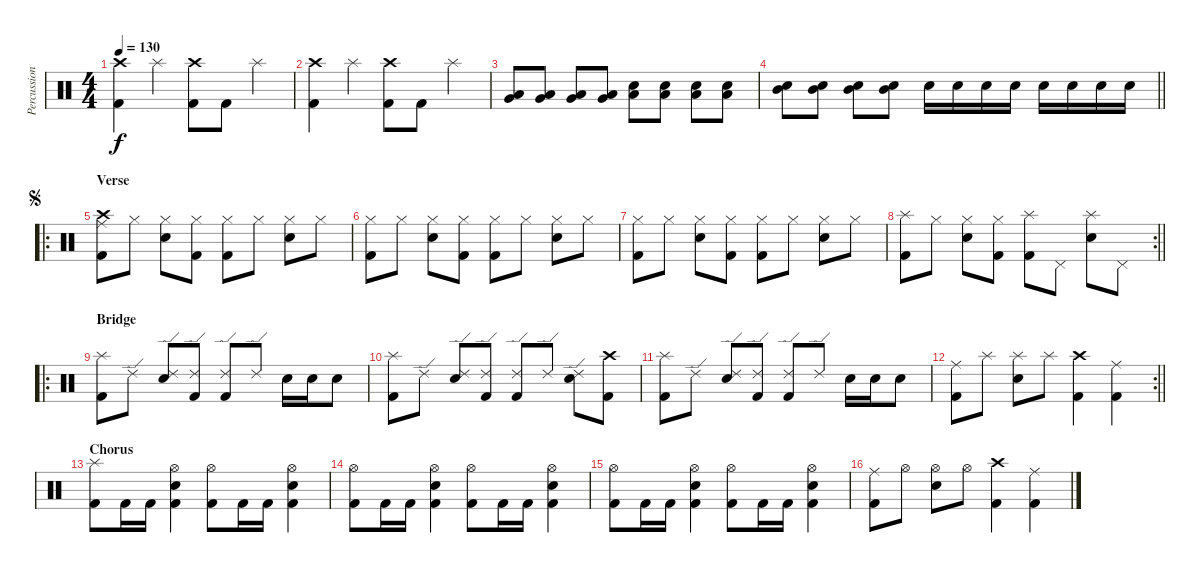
\track ("Percussion" "Percussion") {instrument percussion}
\staff {score}
\articulation defaults
\ts (4 4)
\tempo 130
\clef neutral
\ks c
("Crash high (hit)" "Kick (hit) 2").4{dy f} "Splash (hit)".4 ("Crash high (hit)" "Kick (hit) 2").8 "Kick (hit) 2".8 "Splash (hit)".4 |
("Crash high (hit)" "Kick (hit) 2").4 "Splash (hit)".4 ("Crash high (hit)" "Kick (hit) 2").8 "Kick (hit) 2".8 "Splash (hit)".4 |
("Low Floor Tom (hit)" "Very Low Tom (hit)").8 ("Low Floor Tom (hit)" "Very Low Tom (hit)").8 ("Low Floor Tom (hit)" "Very Low Tom (hit)").8 ("Low Floor Tom (hit)" "Very Low Tom (hit)").8 ("Low Tom (hit)" "Electric Snare (hit)").8 ("Low Tom (hit)" "Electric Snare (hit)").8 ("Low Tom (hit)" "Electric Snare (hit)").8 ("Low Tom (hit)" "Electric Snare (hit)").8 |
\barLineRight lightlight
("Mid Tom (hit)" "Electric Snare (hit)").8 ("Mid Tom (hit)" "Electric Snare (hit)").8 ("Mid Tom (hit)" "Electric Snare (hit)").8 ("Mid Tom (hit)" "Electric Snare (hit)").8 "Electric Snare (hit)".16 "Electric Snare (hit)".16 "Electric Snare (hit)".16 "Electric Snare (hit)".16 "Electric Snare (hit)".16 "Electric Snare (hit)".16 "Electric Snare (hit)".16 "Electric Snare (hit)".16 |
\ro
\section ("" "Verse")
\jump segno
("Crash high (hit)" "Ride (middle)" "Kick (hit) 2").8 "Hi-Hat (closed)".8 ("Hi-Hat (closed)" "Electric Snare (hit)").8 ("Hi-Hat (closed)" "Kick (hit) 2").8 ("Hi-Hat (closed)" "Kick (hit) 2").8 "Hi-Hat (closed)".8 ("Hi-Hat (closed)" "Electric Snare (hit)").8 "Hi-Hat (closed)".8 |
("Hi-Hat (closed)" "Kick (hit) 2").8 "Hi-Hat (closed)".8 ("Hi-Hat (closed)" "Electric Snare (hit)").8 ("Hi-Hat (closed)" "Kick (hit) 2").8 ("Hi-Hat (closed)" "Kick (hit) 2").8 "Hi-Hat (closed)".8 ("Hi-Hat (closed)" "Electric Snare (hit)").8 "Hi-Hat (closed)".8 |
("Hi-Hat (closed)" "Kick (hit) 2").8 "Hi-Hat (closed)".8 ("Hi-Hat (closed)" "Electric Snare (hit)").8 ("Hi-Hat (closed)" "Kick (hit) 2").8 ("Hi-Hat (closed)" "Kick (hit) 2").8 "Hi-Hat (closed)".8 ("Hi-Hat (closed)" "Electric Snare (hit)").8 "Hi-Hat (closed)".8 |
\rc 2
\barLineRight lightlight
("Splash (hit)" "Kick (hit) 2").8 "Hi-Hat (closed)".8 ("Hi-Hat (closed)" "Electric Snare (hit)").8 ("Hi-Hat (closed)" "Kick (hit) 2").8 ("Splash (hit)" "Kick (hit) 2").8 "Pedal Hi-Hat (hit)".8 ("Splash (hit)" "Electric Snare (hit)").8 "Pedal Hi-Hat (hit)".8 |
\ro
\section ("" "Bridge")
("Splash (hit)" "Kick (hit) 2").8 "Ride (edge) 2".8 ("Ride (edge) 2" "Electric Snare (hit)").8 ("Ride (edge) 2" "Kick (hit) 2").8 ("Ride (edge) 2" "Kick (hit) 2").8 "Ride (edge) 2".8 "Electric Snare (hit)".16 "Electric Snare (hit)".16 "Electric Snare (hit)".8 |
("Splash (hit)" "Kick (hit) 2").8 "Ride (edge) 2".8 ("Ride (edge) 2" "Electric Snare (hit)").8 ("Ride (edge) 2" "Kick (hit) 2").8 ("Ride (edge) 2" "Kick (hit) 2").8 "Ride (edge) 2".8 ("Ride (edge) 2" "Electric Snare (hit)").8 ("Crash high (hit)" "Kick (hit) 2").8 |
("Splash (hit)" "Kick (hit) 2").8 "Ride (edge) 2".8 ("Ride (edge) 2" "Electric Snare (hit)").8 ("Ride (edge) 2" "Kick (hit) 2").8 ("Ride (edge) 2" "Kick (hit) 2").8 "Ride (edge) 2".8 "Electric Snare (hit)".16 "Electric Snare (hit)".16 "Electric Snare (hit)".8 |
\rc 2
\barLineRight lightlight
("Ride (middle)" "Kick (hit) 2").8 "Splash (hit)".8 ("Splash (hit)" "Electric Snare (hit)").8 "Splash (hit)".8 ("Crash high (hit)" "Kick (hit) 2").4 ("Ride (middle)" "Kick (hit) 2").4 |
\section ("" "Chorus")
("Splash (hit)" "Kick (hit) 2").8 "Kick (hit) 2".16 "Kick (hit) 2".16 ("Hi-Hat (open)" "Electric Snare (hit)" "Kick (hit) 2").4 ("Hi-Hat (open)" "Kick (hit) 2").8 "Kick (hit) 2".16 "Kick (hit) 2".16 ("Hi-Hat (open)" "Electric Snare (hit)" "Kick (hit) 2").4 |
("Hi-Hat (open)" "Kick (hit) 2").8 "Kick (hit) 2".16 "Kick (hit) 2".16 ("Hi-Hat (open)" "Electric Snare (hit)" "Kick (hit) 2").4 ("Hi-Hat (open)" "Kick (hit) 2").8 "Kick (hit) 2".16 "Kick (hit) 2".16 ("Hi-Hat (open)" "Electric Snare (hit)" "Kick (hit) 2").4 |
("Hi-Hat (open)" "Kick (hit) 2").8 "Kick (hit) 2".16 "Kick (hit) 2".16 ("Hi-Hat (open)" "Electric Snare (hit)" "Kick (hit) 2").4 ("Hi-Hat (open)" "Kick (hit) 2").8 "Kick (hit) 2".16 "Kick (hit) 2".16 ("Hi-Hat (open)" "Electric Snare (hit)" "Kick (hit) 2").4 |
("Ride (middle)" "Kick (hit) 2").8 "Hi-Hat (open)".8 ("Hi-Hat (open)" "Electric Snare (hit)").8 "Hi-Hat (open)".8 ("Crash high (hit)" "Kick (hit) 2").4 ("Ride (middle)" "Kick (hit) 2").4
